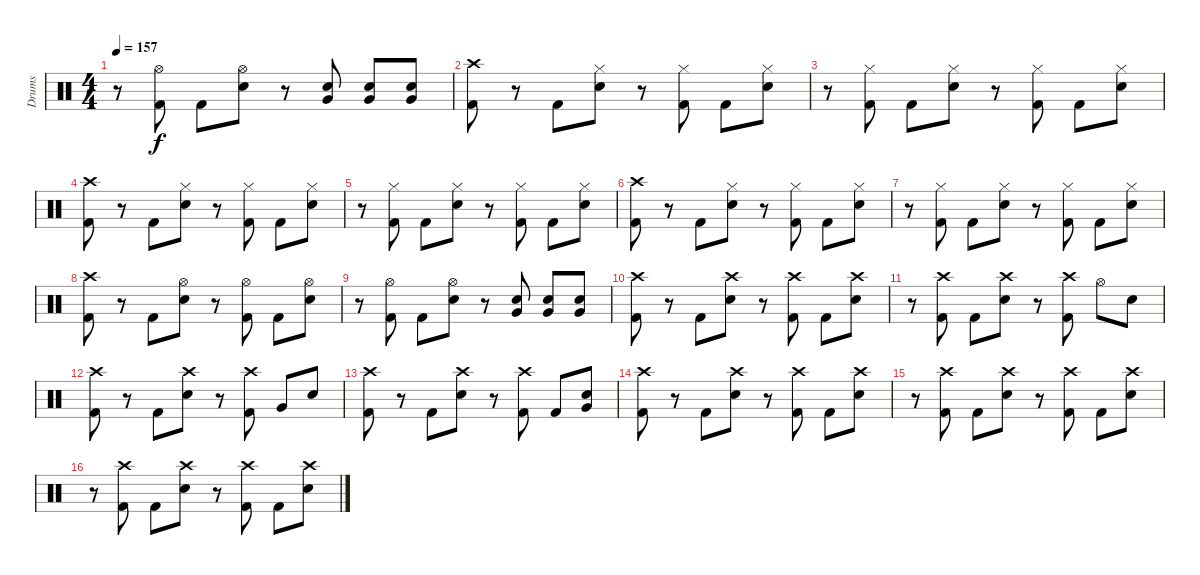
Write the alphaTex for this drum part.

\track ("Drums" "Drums") {instrument percussion}
\staff {score}
\articulation defaults
\ts (4 4)
\tempo 157
\clef neutral
\ks c
r.8{dy f} ("Hi-Hat (open)" "Kick (hit) 2").8 "Kick (hit) 2".8 ("Hi-Hat (open)" "Electric Snare (hit)").8 r.8 ("Very Low Tom (hit)" "Electric Snare (hit)").8 ("Very Low Tom (hit)" "Electric Snare (hit)").8 ("Very Low Tom (hit)" "Electric Snare (hit)").8 |
("Crash high (hit)" "Kick (hit) 2").8 r.8 "Kick (hit) 2".8 ("Hi-Hat (closed)" "Electric Snare (hit)").8 r.8 ("Hi-Hat (closed)" "Kick (hit) 2").8 "Kick (hit) 2".8 ("Hi-Hat (closed)" "Electric Snare (hit)").8 |
r.8 ("Hi-Hat (closed)" "Kick (hit) 2").8 "Kick (hit) 2".8 ("Hi-Hat (closed)" "Electric Snare (hit)").8 r.8 ("Hi-Hat (closed)" "Kick (hit) 2").8 "Kick (hit) 2".8 ("Hi-Hat (closed)" "Electric Snare (hit)").8 |
("Crash high (hit)" "Kick (hit) 2").8 r.8 "Kick (hit) 2".8 ("Hi-Hat (closed)" "Electric Snare (hit)").8 r.8 ("Hi-Hat (closed)" "Kick (hit) 2").8 "Kick (hit) 2".8 ("Hi-Hat (closed)" "Electric Snare (hit)").8 |
r.8 ("Hi-Hat (closed)" "Kick (hit) 2").8 "Kick (hit) 2".8 ("Hi-Hat (closed)" "Electric Snare (hit)").8 r.8 ("Hi-Hat (closed)" "Kick (hit) 2").8 "Kick (hit) 2".8 ("Hi-Hat (closed)" "Electric Snare (hit)").8 |
("Crash high (hit)" "Kick (hit) 2").8 r.8 "Kick (hit) 2".8 ("Hi-Hat (closed)" "Electric Snare (hit)").8 r.8 ("Hi-Hat (closed)" "Kick (hit) 2").8 "Kick (hit) 2".8 ("Hi-Hat (closed)" "Electric Snare (hit)").8 |
r.8 ("Hi-Hat (closed)" "Kick (hit) 2").8 "Kick (hit) 2".8 ("Hi-Hat (closed)" "Electric Snare (hit)").8 r.8 ("Hi-Hat (closed)" "Kick (hit) 2").8 "Kick (hit) 2".8 ("Hi-Hat (closed)" "Electric Snare (hit)").8 |
("Crash high (hit)" "Kick (hit) 2").8 r.8 "Kick (hit) 2".8 ("Hi-Hat (open)" "Electric Snare (hit)").8 r.8 ("Hi-Hat (open)" "Kick (hit) 2").8 "Kick (hit) 2".8 ("Hi-Hat (open)" "Electric Snare (hit)").8 |
r.8 ("Hi-Hat (open)" "Kick (hit) 2").8 "Kick (hit) 2".8 ("Hi-Hat (open)" "Electric Snare (hit)").8 r.8 ("Very Low Tom (hit)" "Electric Snare (hit)").8 ("Very Low Tom (hit)" "Electric Snare (hit)").8 ("Very Low Tom (hit)" "Electric Snare (hit)").8 |
("Crash high (hit)" "Kick (hit) 2").8 r.8 "Kick (hit) 2".8 ("Crash high (hit)" "Electric Snare (hit)").8 r.8 ("Crash high (hit)" "Kick (hit) 2").8 "Kick (hit) 2".8 ("Crash high (hit)" "Electric Snare (hit)").8 |
r.8 ("Crash high (hit)" "Kick (hit) 2").8 "Kick (hit) 2".8 ("Crash high (hit)" "Electric Snare (hit)").8 r.8 ("Crash high (hit)" "Kick (hit) 2").8 "Hi-Hat (open)".8 "Electric Snare (hit)".8 |
("Crash high (hit)" "Kick (hit) 2").8 r.8 "Kick (hit) 2".8 ("Crash high (hit)" "Electric Snare (hit)").8 r.8 ("Crash high (hit)" "Kick (hit) 2").8 "Very Low Tom (hit)".8 "Electric Snare (hit)".8 |
("Crash high (hit)" "Kick (hit) 2").8 r.8 "Kick (hit) 2".8 ("Crash high (hit)" "Electric Snare (hit)").8 r.8 ("Crash high (hit)" "Kick (hit) 2").8 "Kick (hit) 2".8 ("Very Low Tom (hit)" "Electric Snare (hit)").8 |
("Crash high (hit)" "Kick (hit) 2").8 r.8 "Kick (hit) 2".8 ("Crash high (hit)" "Electric Snare (hit)").8 r.8 ("Crash high (hit)" "Kick (hit) 2").8 "Kick (hit) 2".8 ("Crash high (hit)" "Electric Snare (hit)").8 |
r.8 ("Crash high (hit)" "Kick (hit) 2").8 "Kick (hit) 2".8 ("Crash high (hit)" "Electric Snare (hit)").8 r.8 ("Crash high (hit)" "Kick (hit) 2").8 "Kick (hit) 2".8 ("Crash high (hit)" "Electric Snare (hit)").8 |
r.8 ("Crash high (hit)" "Kick (hit) 2").8 "Kick (hit) 2".8 ("Crash high (hit)" "Electric Snare (hit)").8 r.8 ("Crash high (hit)" "Kick (hit) 2").8 "Kick (hit) 2".8 ("Crash high (hit)" "Electric Snare (hit)").8
